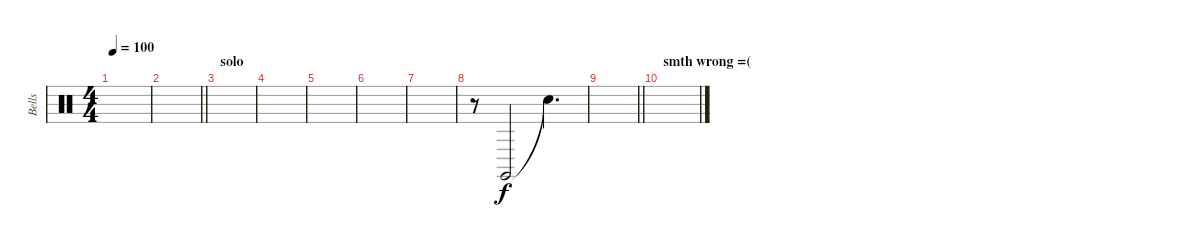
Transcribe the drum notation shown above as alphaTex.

\track ("Bells" "Bells") {instrument percussion}
\staff {score}
\articulation defaults
\ts (4 4)
\tempo 100
\clef neutral
\ks c
|
\barLineRight lightlight
|
\section ("" "solo")
|
|
|
|
|
r.8 "Claves (hit)".2 "Snare (hit)"{t}.4{d} |
\barLineRight lightlight
|
\section ("" "smth wrong =(")
